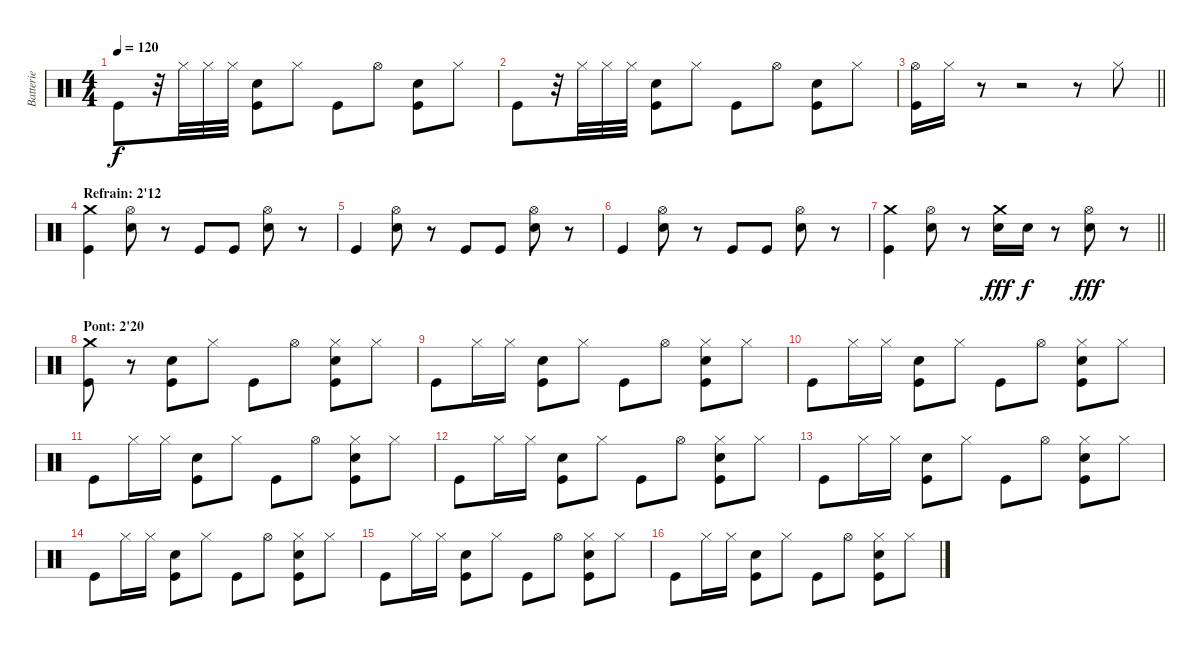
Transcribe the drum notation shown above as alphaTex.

\track ("Batterie" "Batterie") {instrument percussion}
\staff {score}
\articulation defaults
\ts (4 4)
\tempo 120
\clef neutral
\ks c "Kick (hit)".8{dy f}
r.32 "Hi-Hat (closed)".32 "Hi-Hat (closed)".32 "Hi-Hat (closed)".32 ("Snare (hit) 2" "Kick (hit)").8 "Hi-Hat (closed)".8 "Kick (hit)".8 "Hi-Hat (open)".8 ("Snare (hit) 2" "Kick (hit)").8 "Hi-Hat (closed)".8 |
"Kick (hit)".8 r.32 "Hi-Hat (closed)".32 "Hi-Hat (closed)".32 "Hi-Hat (closed)".32 ("Snare (hit) 2" "Kick (hit)").8 "Hi-Hat (closed)".8 "Kick (hit)".8 "Hi-Hat (open)".8 ("Snare (hit) 2" "Kick (hit)").8 "Hi-Hat (closed)".8 |
\barLineRight lightlight
("Hi-Hat (open)" "Kick (hit)").16 "Hi-Hat (closed)".16 r.8 r.2 r.8 "Hi-Hat (closed)".8 |
\section ("" "Refrain: 2'12")
("Crash medium (hit)" "Kick (hit)").4 ("Hi-Hat (open)" "Snare (hit) 2").8 r.8 "Kick (hit)".8 "Kick (hit)".8 ("Hi-Hat (open)" "Snare (hit) 2").8 r.8 |
"Kick (hit)".4 ("Hi-Hat (open)" "Snare (hit) 2").8 r.8 "Kick (hit)".8 "Kick (hit)".8 ("Hi-Hat (open)" "Snare (hit) 2").8 r.8 |
"Kick (hit)".4 ("Hi-Hat (open)" "Snare (hit) 2").8 r.8 "Kick (hit)".8 "Kick (hit)".8 ("Hi-Hat (open)" "Snare (hit) 2").8 r.8 |
\barLineRight lightlight
("Crash medium (hit)" "Kick (hit)").4 ("Hi-Hat (open)" "Snare (hit) 2").8 r.8 ("Crash medium (hit)" "Snare (hit) 2").16{dy fff} "Snare (hit) 2".16{dy f} r.8 ("Hi-Hat (open)" "Snare (hit) 2").8{dy fff} r.8 |
\section ("" "Pont: 2'20")
("Crash medium (hit)" "Kick (hit)").8 r.8 ("Snare (hit) 2" "Kick (hit)").8 "Hi-Hat (closed)".8 "Kick (hit)".8 "Hi-Hat (open)".8 ("Hi-Hat (closed)" "Snare (hit) 2" "Kick (hit)").8 "Hi-Hat (closed)".8 |
"Kick (hit)".8 "Hi-Hat (closed)".16 "Hi-Hat (closed)".16 ("Snare (hit) 2" "Kick (hit)").8 "Hi-Hat (closed)".8 "Kick (hit)".8 "Hi-Hat (open)".8 ("Hi-Hat (closed)" "Snare (hit) 2" "Kick (hit)").8 "Hi-Hat (closed)".8 |
"Kick (hit)".8 "Hi-Hat (closed)".16 "Hi-Hat (closed)".16 ("Snare (hit) 2" "Kick (hit)").8 "Hi-Hat (closed)".8 "Kick (hit)".8 "Hi-Hat (open)".8 ("Hi-Hat (closed)" "Snare (hit) 2" "Kick (hit)").8 "Hi-Hat (closed)".8 |
"Kick (hit)".8 "Hi-Hat (closed)".16 "Hi-Hat (closed)".16 ("Snare (hit) 2" "Kick (hit)").8 "Hi-Hat (closed)".8 "Kick (hit)".8 "Hi-Hat (open)".8 ("Hi-Hat (closed)" "Snare (hit) 2" "Kick (hit)").8 "Hi-Hat (closed)".8 |
"Kick (hit)".8 "Hi-Hat (closed)".16 "Hi-Hat (closed)".16 ("Snare (hit) 2" "Kick (hit)").8 "Hi-Hat (closed)".8 "Kick (hit)".8 "Hi-Hat (open)".8 ("Hi-Hat (closed)" "Snare (hit) 2" "Kick (hit)").8 "Hi-Hat (closed)".8 |
"Kick (hit)".8 "Hi-Hat (closed)".16 "Hi-Hat (closed)".16 ("Snare (hit) 2" "Kick (hit)").8 "Hi-Hat (closed)".8 "Kick (hit)".8 "Hi-Hat (open)".8 ("Hi-Hat (closed)" "Snare (hit) 2" "Kick (hit)").8 "Hi-Hat (closed)".8 |
"Kick (hit)".8 "Hi-Hat (closed)".16 "Hi-Hat (closed)".16 ("Snare (hit) 2" "Kick (hit)").8 "Hi-Hat (closed)".8 "Kick (hit)".8 "Hi-Hat (open)".8 ("Hi-Hat (closed)" "Snare (hit) 2" "Kick (hit)").8 "Hi-Hat (closed)".8 |
"Kick (hit)".8 "Hi-Hat (closed)".16 "Hi-Hat (closed)".16 ("Snare (hit) 2" "Kick (hit)").8 "Hi-Hat (closed)".8 "Kick (hit)".8 "Hi-Hat (open)".8 ("Hi-Hat (closed)" "Snare (hit) 2" "Kick (hit)").8 "Hi-Hat (closed)".8 |
"Kick (hit)".8 "Hi-Hat (closed)".16 "Hi-Hat (closed)".16 ("Snare (hit) 2" "Kick (hit)").8 "Hi-Hat (closed)".8 "Kick (hit)".8 "Hi-Hat (open)".8 ("Hi-Hat (closed)" "Snare (hit) 2" "Kick (hit)").8 "Hi-Hat (closed)".8
